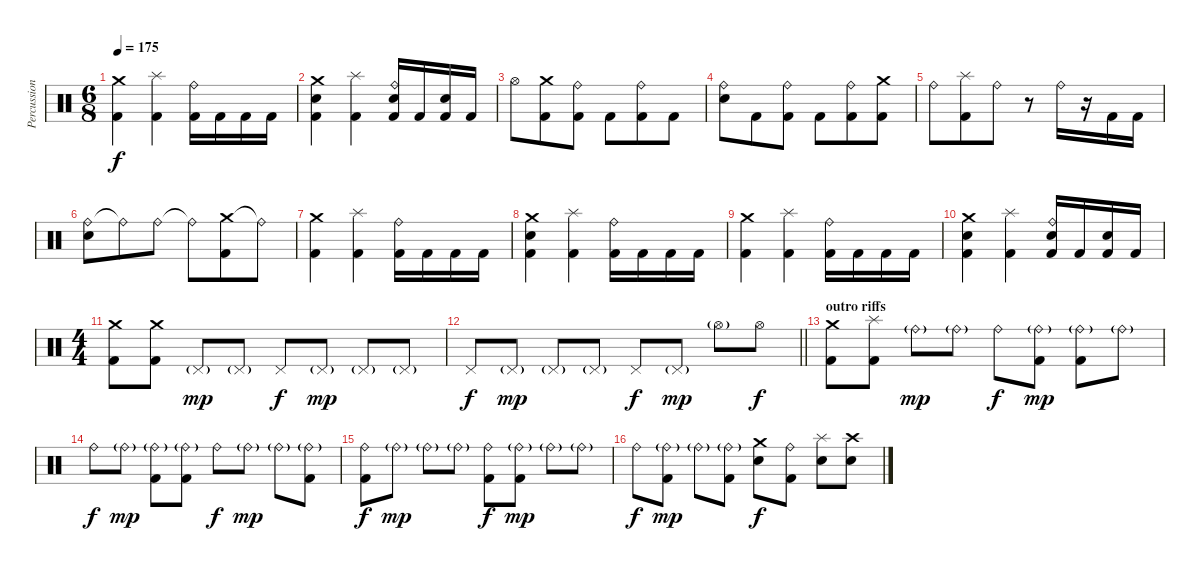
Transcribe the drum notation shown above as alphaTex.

\track ("Percussion" "Percussion") {instrument percussion}
\staff {score}
\articulation defaults
\ts (6 8)
\tempo 175
\clef neutral
\ks c
("Crash medium (hit)" "Kick (hit) 2").4{dy f} ("Splash (hit)" "Kick (hit) 2").4 ("Ride (bell)" "Kick (hit) 2").16 "Kick (hit) 2".16 "Kick (hit) 2".16 "Kick (hit) 2".16 |
("Crash medium (hit)" "Electric Snare (hit)" "Kick (hit) 2").4 ("Splash (hit)" "Kick (hit) 2").4 ("Ride (bell)" "Electric Snare (hit)" "Kick (hit) 2").16 "Kick (hit) 2".16 ("Electric Snare (hit)" "Kick (hit) 2").16 "Kick (hit) 2".16 |
"Hi-Hat (open)".8 ("Crash medium (hit)" "Kick (hit) 2").8 ("Ride (bell)" "Kick (hit) 2").8 "Kick (hit) 2".8 ("Ride (bell)" "Kick (hit) 2").8 "Kick (hit) 2".8 |
("Ride (bell)" "Electric Snare (hit)").8 "Kick (hit) 2".8 ("Ride (bell)" "Kick (hit) 2").8 "Kick (hit) 2".8 ("Ride (bell)" "Kick (hit) 2").8 ("Crash medium (hit)" "Kick (hit) 2").8 |
"Ride (bell)".8 ("Splash (hit)" "Kick (hit) 2").8 "Ride (bell)".8 r.8 "Ride (bell)".16 r.16 "Kick (hit) 2".16 "Kick (hit) 2".16 |
("Ride (bell)" "Electric Snare (hit)").8 "Ride (bell)"{t}.8 "Ride (bell)".8 "Ride (bell)"{t}.8 ("Crash medium (hit)" "Kick (hit) 2").8 "Ride (bell)"{t}.8 |
("Crash medium (hit)" "Kick (hit) 2").4 ("Splash (hit)" "Kick (hit) 2").4 ("Ride (bell)" "Kick (hit) 2").16 "Kick (hit) 2".16 "Kick (hit) 2".16 "Kick (hit) 2".16 |
("Crash medium (hit)" "Electric Snare (hit)" "Kick (hit) 2").4 ("Splash (hit)" "Kick (hit) 2").4 ("Ride (bell)" "Kick (hit) 2").16 "Kick (hit) 2".16 "Kick (hit) 2".16 "Kick (hit) 2".16 |
("Crash medium (hit)" "Kick (hit) 2").4 ("Splash (hit)" "Kick (hit) 2").4 ("Ride (bell)" "Kick (hit) 2").16 "Kick (hit) 2".16 "Kick (hit) 2".16 "Kick (hit) 2".16 |
("Crash medium (hit)" "Electric Snare (hit)" "Kick (hit) 2").4 ("Splash (hit)" "Kick (hit) 2").4 ("Ride (bell)" "Electric Snare (hit)" "Kick (hit) 2").16 "Kick (hit) 2".16 ("Electric Snare (hit)" "Kick (hit) 2").16 "Kick (hit) 2".16 |
\ts (4 4)
("Crash medium (hit)" "Kick (hit) 2").8 ("Crash medium (hit)" "Kick (hit) 2").8 "Pedal Hi-Hat (hit)"{g}.8{dy mp} "Pedal Hi-Hat (hit)"{g}.8 "Pedal Hi-Hat (hit)".8{dy f} "Pedal Hi-Hat (hit)"{g}.8{dy mp} "Pedal Hi-Hat (hit)"{g}.8 "Pedal Hi-Hat (hit)"{g}.8 |
\barLineRight lightlight "Pedal Hi-Hat (hit)".8{dy f} "Pedal Hi-Hat (hit)"{g}.8{dy mp} "Pedal Hi-Hat (hit)"{g}.8 "Pedal Hi-Hat (hit)"{g}.8 "Pedal Hi-Hat (hit)".8{dy f} "Pedal Hi-Hat (hit)"{g}.8{dy mp} "Hi-Hat (open)"{g}.8 "Hi-Hat (open)".8{dy f}
|
\section ("" "outro riffs")
("Crash medium (hit)" "Kick (hit) 2").8 ("Splash (hit)" "Kick (hit) 2").8 "Ride (bell)"{g}.8{dy mp} "Ride (bell)"{g}.8 "Ride (bell)".8{dy f} ("Ride (bell)"{g} "Kick (hit) 2").8{dy mp} ("Ride (bell)"{g} "Kick (hit) 2").8 "Ride (bell)"{g}.8 |
"Ride (bell)".8{dy f} "Ride (bell)"{g}.8{dy mp} ("Ride (bell)"{g} "Kick (hit) 2").8 ("Ride (bell)"{g} "Kick (hit) 2").8 "Ride (bell)".8{dy f} "Ride (bell)"{g}.8{dy mp} "Ride (bell)"{g}.8 ("Ride (bell)"{g} "Kick (hit) 2").8 |
("Ride (bell)" "Kick (hit) 2").8{dy f} "Ride (bell)"{g}.8{dy mp} "Ride (bell)"{g}.8 "Ride (bell)"{g}.8 ("Ride (bell)" "Kick (hit) 2").8{dy f} ("Ride (bell)"{g} "Kick (hit) 2").8{dy mp} "Ride (bell)"{g}.8 "Ride (bell)"{g}.8 |
"Ride (bell)".8{dy f} ("Ride (bell)"{g} "Kick (hit) 2").8{dy mp} "Ride (bell)"{g}.8 ("Ride (bell)"{g} "Kick (hit) 2").8 ("Crash medium (hit)" "Electric Snare (hit)").8{dy f} ("Ride (bell)" "Kick (hit) 2").8 ("Splash (hit)" "Electric Snare (hit)").8 ("Crash high (hit)" "Electric Snare (hit)").8
